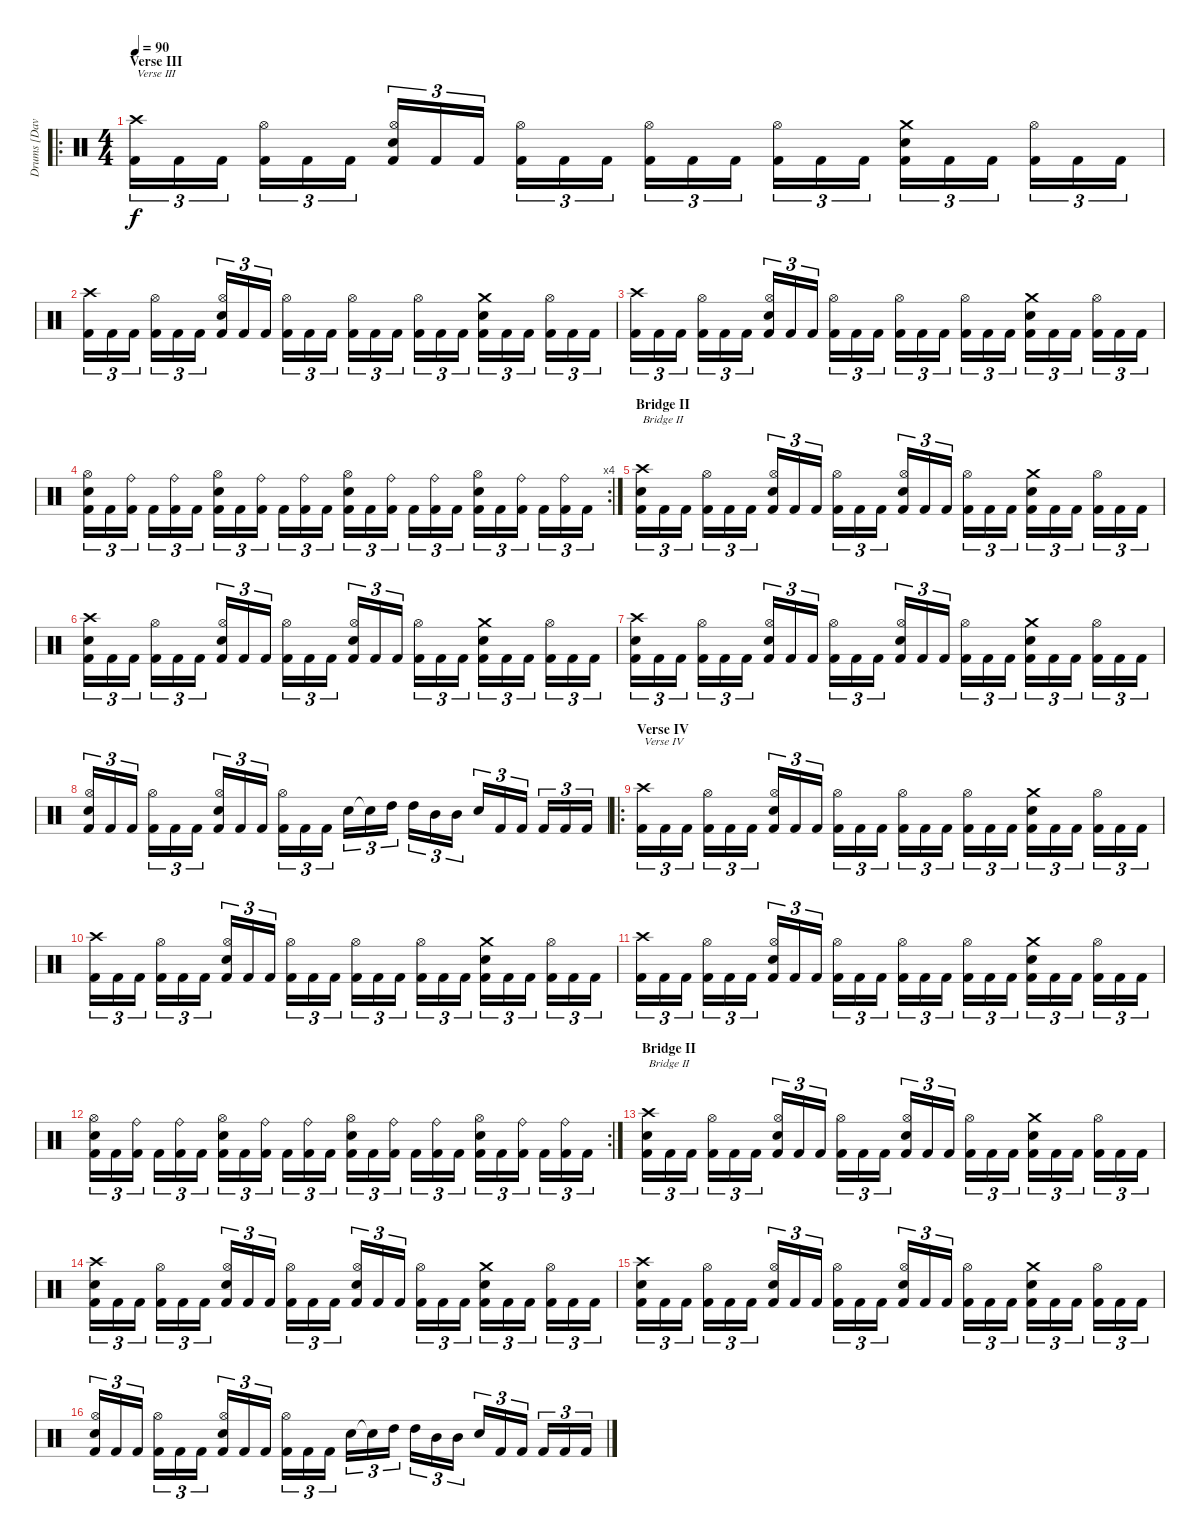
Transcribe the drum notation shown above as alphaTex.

\track ("Drums [Dave Culross]" "Drums [Dav") {instrument percussion}
\staff {score}
\articulation defaults
\ro
\ts (4 4)
\section ("" "Verse III")
\tempo 90
\clef neutral
\ks c
("Crash high (hit)" "Kick (hit) 2").16{tu (3 2) txt "Verse III" dy f} "Kick (hit) 2".16{tu (3 2)} "Kick (hit) 2".16{tu (3 2)} ("Hi-Hat (open)" "Kick (hit) 2").16{tu (3 2)} "Kick (hit) 2".16{tu (3 2)} "Kick (hit) 2".16{tu (3 2)} ("Hi-Hat (open)" "Electric Snare (hit)" "Kick (hit) 2").16{tu (3 2)} "Kick (hit) 2".16{tu (3 2)} "Kick (hit) 2".16{tu (3 2)} ("Hi-Hat (open)" "Kick (hit) 2").16{tu (3 2)} "Kick (hit) 2".16{tu (3 2)} "Kick (hit) 2".16{tu (3 2)} ("Hi-Hat (open)" "Kick (hit) 2").16{tu (3 2)} "Kick (hit) 2".16{tu (3 2)} "Kick (hit) 2".16{tu (3 2)} ("Hi-Hat (open)" "Kick (hit) 2").16{tu (3 2)} "Kick (hit) 2".16{tu (3 2)} "Kick (hit) 2".16{tu (3 2)} ("Crash medium (hit)" "Electric Snare (hit)" "Kick (hit) 2").16{tu (3 2)} "Kick (hit) 2".16{tu (3 2)} "Kick (hit) 2".16{tu (3 2)} ("Hi-Hat (open)" "Kick (hit) 2").16{tu (3 2)} "Kick (hit) 2".16{tu (3 2)} "Kick (hit) 2".16{tu (3 2)} |
("Crash high (hit)" "Kick (hit) 2").16{tu (3 2)} "Kick (hit) 2".16{tu (3 2)} "Kick (hit) 2".16{tu (3 2)} ("Hi-Hat (open)" "Kick (hit) 2").16{tu (3 2)} "Kick (hit) 2".16{tu (3 2)} "Kick (hit) 2".16{tu (3 2)} ("Hi-Hat (open)" "Electric Snare (hit)" "Kick (hit) 2").16{tu (3 2)} "Kick (hit) 2".16{tu (3 2)} "Kick (hit) 2".16{tu (3 2)} ("Hi-Hat (open)" "Kick (hit) 2").16{tu (3 2)} "Kick (hit) 2".16{tu (3 2)} "Kick (hit) 2".16{tu (3 2)} ("Hi-Hat (open)" "Kick (hit) 2").16{tu (3 2)} "Kick (hit) 2".16{tu (3 2)} "Kick (hit) 2".16{tu (3 2)} ("Hi-Hat (open)" "Kick (hit) 2").16{tu (3 2)} "Kick (hit) 2".16{tu (3 2)} "Kick (hit) 2".16{tu (3 2)} ("Crash medium (hit)" "Electric Snare (hit)" "Kick (hit) 2").16{tu (3 2)} "Kick (hit) 2".16{tu (3 2)} "Kick (hit) 2".16{tu (3 2)} ("Hi-Hat (open)" "Kick (hit) 2").16{tu (3 2)} "Kick (hit) 2".16{tu (3 2)} "Kick (hit) 2".16{tu (3 2)} |
("Crash high (hit)" "Kick (hit) 2").16{tu (3 2)} "Kick (hit) 2".16{tu (3 2)} "Kick (hit) 2".16{tu (3 2)} ("Hi-Hat (open)" "Kick (hit) 2").16{tu (3 2)} "Kick (hit) 2".16{tu (3 2)} "Kick (hit) 2".16{tu (3 2)} ("Hi-Hat (open)" "Electric Snare (hit)" "Kick (hit) 2").16{tu (3 2)} "Kick (hit) 2".16{tu (3 2)} "Kick (hit) 2".16{tu (3 2)} ("Hi-Hat (open)" "Kick (hit) 2").16{tu (3 2)} "Kick (hit) 2".16{tu (3 2)} "Kick (hit) 2".16{tu (3 2)} ("Hi-Hat (open)" "Kick (hit) 2").16{tu (3 2)} "Kick (hit) 2".16{tu (3 2)} "Kick (hit) 2".16{tu (3 2)} ("Hi-Hat (open)" "Kick (hit) 2").16{tu (3 2)} "Kick (hit) 2".16{tu (3 2)} "Kick (hit) 2".16{tu (3 2)} ("Crash medium (hit)" "Electric Snare (hit)" "Kick (hit) 2").16{tu (3 2)} "Kick (hit) 2".16{tu (3 2)} "Kick (hit) 2".16{tu (3 2)} ("Hi-Hat (open)" "Kick (hit) 2").16{tu (3 2)} "Kick (hit) 2".16{tu (3 2)} "Kick (hit) 2".16{tu (3 2)} |
\rc 4
("Hi-Hat (open)" "Electric Snare (hit)" "Kick (hit) 2").16{tu (3 2)} "Kick (hit) 2".16{tu (3 2)} ("Ride (bell)" "Kick (hit) 2").16{tu (3 2)} "Kick (hit) 2".16{tu (3 2)} ("Ride (bell)" "Kick (hit) 2").16{tu (3 2)} "Kick (hit) 2".16{tu (3 2)} ("Hi-Hat (open)" "Electric Snare (hit)" "Kick (hit) 2").16{tu (3 2)} "Kick (hit) 2".16{tu (3 2)} ("Ride (bell)" "Kick (hit) 2").16{tu (3 2)} "Kick (hit) 2".16{tu (3 2)} ("Ride (bell)" "Kick (hit) 2").16{tu (3 2)} "Kick (hit) 2".16{tu (3 2)} ("Hi-Hat (open)" "Electric Snare (hit)" "Kick (hit) 2").16{tu (3 2)} "Kick (hit) 2".16{tu (3 2)} ("Ride (bell)" "Kick (hit) 2").16{tu (3 2)} "Kick (hit) 2".16{tu (3 2)} ("Ride (bell)" "Kick (hit) 2").16{tu (3 2)} "Kick (hit) 2".16{tu (3 2)} ("Hi-Hat (open)" "Electric Snare (hit)" "Kick (hit) 2").16{tu (3 2)} "Kick (hit) 2".16{tu (3 2)} ("Ride (bell)" "Kick (hit) 2").16{tu (3 2)} "Kick (hit) 2".16{tu (3 2)} ("Ride (bell)" "Kick (hit) 2").16{tu (3 2)} "Kick (hit) 2".16{tu (3 2)} |
\section ("" "Bridge II")
("Crash high (hit)" "Electric Snare (hit)" "Kick (hit) 2").16{tu (3 2) txt "Bridge II"} "Kick (hit) 2".16{tu (3 2)} "Kick (hit) 2".16{tu (3 2)} ("Hi-Hat (open)" "Kick (hit) 2").16{tu (3 2)} "Kick (hit) 2".16{tu (3 2)} "Kick (hit) 2".16{tu (3 2)} ("Hi-Hat (open)" "Electric Snare (hit)" "Kick (hit) 2").16{tu (3 2)} "Kick (hit) 2".16{tu (3 2)} "Kick (hit) 2".16{tu (3 2)} ("Hi-Hat (open)" "Kick (hit) 2").16{tu (3 2)} "Kick (hit) 2".16{tu (3 2)} "Kick (hit) 2".16{tu (3 2)} ("Hi-Hat (open)" "Electric Snare (hit)" "Kick (hit) 2").16{tu (3 2)} "Kick (hit) 2".16{tu (3 2)} "Kick (hit) 2".16{tu (3 2)} ("Hi-Hat (open)" "Kick (hit) 2").16{tu (3 2)} "Kick (hit) 2".16{tu (3 2)} "Kick (hit) 2".16{tu (3 2)} ("Crash medium (hit)" "Electric Snare (hit)" "Kick (hit) 2").16{tu (3 2)} "Kick (hit) 2".16{tu (3 2)} "Kick (hit) 2".16{tu (3 2)} ("Hi-Hat (open)" "Kick (hit) 2").16{tu (3 2)} "Kick (hit) 2".16{tu (3 2)} "Kick (hit) 2".16{tu (3 2)} |
("Crash high (hit)" "Electric Snare (hit)" "Kick (hit) 2").16{tu (3 2)} "Kick (hit) 2".16{tu (3 2)} "Kick (hit) 2".16{tu (3 2)} ("Hi-Hat (open)" "Kick (hit) 2").16{tu (3 2)} "Kick (hit) 2".16{tu (3 2)} "Kick (hit) 2".16{tu (3 2)} ("Hi-Hat (open)" "Electric Snare (hit)" "Kick (hit) 2").16{tu (3 2)} "Kick (hit) 2".16{tu (3 2)} "Kick (hit) 2".16{tu (3 2)} ("Hi-Hat (open)" "Kick (hit) 2").16{tu (3 2)} "Kick (hit) 2".16{tu (3 2)} "Kick (hit) 2".16{tu (3 2)} ("Hi-Hat (open)" "Electric Snare (hit)" "Kick (hit) 2").16{tu (3 2)} "Kick (hit) 2".16{tu (3 2)} "Kick (hit) 2".16{tu (3 2)} ("Hi-Hat (open)" "Kick (hit) 2").16{tu (3 2)} "Kick (hit) 2".16{tu (3 2)} "Kick (hit) 2".16{tu (3 2)} ("Crash medium (hit)" "Electric Snare (hit)" "Kick (hit) 2").16{tu (3 2)} "Kick (hit) 2".16{tu (3 2)} "Kick (hit) 2".16{tu (3 2)} ("Hi-Hat (open)" "Kick (hit) 2").16{tu (3 2)} "Kick (hit) 2".16{tu (3 2)} "Kick (hit) 2".16{tu (3 2)} |
("Crash high (hit)" "Electric Snare (hit)" "Kick (hit) 2").16{tu (3 2)} "Kick (hit) 2".16{tu (3 2)} "Kick (hit) 2".16{tu (3 2)} ("Hi-Hat (open)" "Kick (hit) 2").16{tu (3 2)} "Kick (hit) 2".16{tu (3 2)} "Kick (hit) 2".16{tu (3 2)} ("Hi-Hat (open)" "Electric Snare (hit)" "Kick (hit) 2").16{tu (3 2)} "Kick (hit) 2".16{tu (3 2)} "Kick (hit) 2".16{tu (3 2)} ("Hi-Hat (open)" "Kick (hit) 2").16{tu (3 2)} "Kick (hit) 2".16{tu (3 2)} "Kick (hit) 2".16{tu (3 2)} ("Hi-Hat (open)" "Electric Snare (hit)" "Kick (hit) 2").16{tu (3 2)} "Kick (hit) 2".16{tu (3 2)} "Kick (hit) 2".16{tu (3 2)} ("Hi-Hat (open)" "Kick (hit) 2").16{tu (3 2)} "Kick (hit) 2".16{tu (3 2)} "Kick (hit) 2".16{tu (3 2)} ("Crash medium (hit)" "Electric Snare (hit)" "Kick (hit) 2").16{tu (3 2)} "Kick (hit) 2".16{tu (3 2)} "Kick (hit) 2".16{tu (3 2)} ("Hi-Hat (open)" "Kick (hit) 2").16{tu (3 2)} "Kick (hit) 2".16{tu (3 2)} "Kick (hit) 2".16{tu (3 2)} |
("Hi-Hat (open)" "Electric Snare (hit)" "Kick (hit) 2").16{tu (3 2)} "Kick (hit) 2".16{tu (3 2)} "Kick (hit) 2".16{tu (3 2)} ("Hi-Hat (open)" "Kick (hit) 2").16{tu (3 2)} "Kick (hit) 2".16{tu (3 2)} "Kick (hit) 2".16{tu (3 2)} ("Hi-Hat (open)" "Electric Snare (hit)" "Kick (hit) 2").16{tu (3 2)} "Kick (hit) 2".16{tu (3 2)} "Kick (hit) 2".16{tu (3 2)} ("Hi-Hat (open)" "Kick (hit) 2").16{tu (3 2)} "Kick (hit) 2".16{tu (3 2)} "Kick (hit) 2".16{tu (3 2)} "Electric Snare (hit)".16{tu (3 2)} "Snare (hit)"{t}.16{tu (3 2)} "High Tom (hit)".16{tu (3 2)} "High Tom (hit)".16{tu (3 2)} "Mid Tom (hit)".16{tu (3 2)} "Mid Tom (hit)".16{tu (3 2)} "Electric Snare (hit)".16{tu (3 2)} "Kick (hit) 2".16{tu (3 2)} "Kick (hit) 2".16{tu (3 2)} "Kick (hit) 2".16{tu (3 2)} "Kick (hit) 2".16{tu (3 2)} "Kick (hit) 2".16{tu (3 2)} |
\ro
\section ("" "Verse IV")
("Crash high (hit)" "Kick (hit) 2").16{tu (3 2) txt "Verse IV"} "Kick (hit) 2".16{tu (3 2)} "Kick (hit) 2".16{tu (3 2)} ("Hi-Hat (open)" "Kick (hit) 2").16{tu (3 2)} "Kick (hit) 2".16{tu (3 2)} "Kick (hit) 2".16{tu (3 2)} ("Hi-Hat (open)" "Electric Snare (hit)" "Kick (hit) 2").16{tu (3 2)} "Kick (hit) 2".16{tu (3 2)} "Kick (hit) 2".16{tu (3 2)} ("Hi-Hat (open)" "Kick (hit) 2").16{tu (3 2)} "Kick (hit) 2".16{tu (3 2)} "Kick (hit) 2".16{tu (3 2)} ("Hi-Hat (open)" "Kick (hit) 2").16{tu (3 2)} "Kick (hit) 2".16{tu (3 2)} "Kick (hit) 2".16{tu (3 2)} ("Hi-Hat (open)" "Kick (hit) 2").16{tu (3 2)} "Kick (hit) 2".16{tu (3 2)} "Kick (hit) 2".16{tu (3 2)} ("Crash medium (hit)" "Electric Snare (hit)" "Kick (hit) 2").16{tu (3 2)} "Kick (hit) 2".16{tu (3 2)} "Kick (hit) 2".16{tu (3 2)} ("Hi-Hat (open)" "Kick (hit) 2").16{tu (3 2)} "Kick (hit) 2".16{tu (3 2)} "Kick (hit) 2".16{tu (3 2)} |
("Crash high (hit)" "Kick (hit) 2").16{tu (3 2)} "Kick (hit) 2".16{tu (3 2)} "Kick (hit) 2".16{tu (3 2)} ("Hi-Hat (open)" "Kick (hit) 2").16{tu (3 2)} "Kick (hit) 2".16{tu (3 2)} "Kick (hit) 2".16{tu (3 2)} ("Hi-Hat (open)" "Electric Snare (hit)" "Kick (hit) 2").16{tu (3 2)} "Kick (hit) 2".16{tu (3 2)} "Kick (hit) 2".16{tu (3 2)} ("Hi-Hat (open)" "Kick (hit) 2").16{tu (3 2)} "Kick (hit) 2".16{tu (3 2)} "Kick (hit) 2".16{tu (3 2)} ("Hi-Hat (open)" "Kick (hit) 2").16{tu (3 2)} "Kick (hit) 2".16{tu (3 2)} "Kick (hit) 2".16{tu (3 2)} ("Hi-Hat (open)" "Kick (hit) 2").16{tu (3 2)} "Kick (hit) 2".16{tu (3 2)} "Kick (hit) 2".16{tu (3 2)} ("Crash medium (hit)" "Electric Snare (hit)" "Kick (hit) 2").16{tu (3 2)} "Kick (hit) 2".16{tu (3 2)} "Kick (hit) 2".16{tu (3 2)} ("Hi-Hat (open)" "Kick (hit) 2").16{tu (3 2)} "Kick (hit) 2".16{tu (3 2)} "Kick (hit) 2".16{tu (3 2)} |
("Crash high (hit)" "Kick (hit) 2").16{tu (3 2)} "Kick (hit) 2".16{tu (3 2)} "Kick (hit) 2".16{tu (3 2)} ("Hi-Hat (open)" "Kick (hit) 2").16{tu (3 2)} "Kick (hit) 2".16{tu (3 2)} "Kick (hit) 2".16{tu (3 2)} ("Hi-Hat (open)" "Electric Snare (hit)" "Kick (hit) 2").16{tu (3 2)} "Kick (hit) 2".16{tu (3 2)} "Kick (hit) 2".16{tu (3 2)} ("Hi-Hat (open)" "Kick (hit) 2").16{tu (3 2)} "Kick (hit) 2".16{tu (3 2)} "Kick (hit) 2".16{tu (3 2)} ("Hi-Hat (open)" "Kick (hit) 2").16{tu (3 2)} "Kick (hit) 2".16{tu (3 2)} "Kick (hit) 2".16{tu (3 2)} ("Hi-Hat (open)" "Kick (hit) 2").16{tu (3 2)} "Kick (hit) 2".16{tu (3 2)} "Kick (hit) 2".16{tu (3 2)} ("Crash medium (hit)" "Electric Snare (hit)" "Kick (hit) 2").16{tu (3 2)} "Kick (hit) 2".16{tu (3 2)} "Kick (hit) 2".16{tu (3 2)} ("Hi-Hat (open)" "Kick (hit) 2").16{tu (3 2)} "Kick (hit) 2".16{tu (3 2)} "Kick (hit) 2".16{tu (3 2)} |
\rc 2
("Hi-Hat (open)" "Electric Snare (hit)" "Kick (hit) 2").16{tu (3 2)} "Kick (hit) 2".16{tu (3 2)} ("Ride (bell)" "Kick (hit) 2").16{tu (3 2)} "Kick (hit) 2".16{tu (3 2)} ("Ride (bell)" "Kick (hit) 2").16{tu (3 2)} "Kick (hit) 2".16{tu (3 2)} ("Hi-Hat (open)" "Electric Snare (hit)" "Kick (hit) 2").16{tu (3 2)} "Kick (hit) 2".16{tu (3 2)} ("Ride (bell)" "Kick (hit) 2").16{tu (3 2)} "Kick (hit) 2".16{tu (3 2)} ("Ride (bell)" "Kick (hit) 2").16{tu (3 2)} "Kick (hit) 2".16{tu (3 2)} ("Hi-Hat (open)" "Electric Snare (hit)" "Kick (hit) 2").16{tu (3 2)} "Kick (hit) 2".16{tu (3 2)} ("Ride (bell)" "Kick (hit) 2").16{tu (3 2)} "Kick (hit) 2".16{tu (3 2)} ("Ride (bell)" "Kick (hit) 2").16{tu (3 2)} "Kick (hit) 2".16{tu (3 2)} ("Hi-Hat (open)" "Electric Snare (hit)" "Kick (hit) 2").16{tu (3 2)} "Kick (hit) 2".16{tu (3 2)} ("Ride (bell)" "Kick (hit) 2").16{tu (3 2)} "Kick (hit) 2".16{tu (3 2)} ("Ride (bell)" "Kick (hit) 2").16{tu (3 2)} "Kick (hit) 2".16{tu (3 2)} |
\section ("" "Bridge II")
("Crash high (hit)" "Electric Snare (hit)" "Kick (hit) 2").16{tu (3 2) txt "Bridge II"} "Kick (hit) 2".16{tu (3 2)} "Kick (hit) 2".16{tu (3 2)} ("Hi-Hat (open)" "Kick (hit) 2").16{tu (3 2)} "Kick (hit) 2".16{tu (3 2)} "Kick (hit) 2".16{tu (3 2)} ("Hi-Hat (open)" "Electric Snare (hit)" "Kick (hit) 2").16{tu (3 2)} "Kick (hit) 2".16{tu (3 2)} "Kick (hit) 2".16{tu (3 2)} ("Hi-Hat (open)" "Kick (hit) 2").16{tu (3 2)} "Kick (hit) 2".16{tu (3 2)} "Kick (hit) 2".16{tu (3 2)} ("Hi-Hat (open)" "Electric Snare (hit)" "Kick (hit) 2").16{tu (3 2)} "Kick (hit) 2".16{tu (3 2)} "Kick (hit) 2".16{tu (3 2)} ("Hi-Hat (open)" "Kick (hit) 2").16{tu (3 2)} "Kick (hit) 2".16{tu (3 2)} "Kick (hit) 2".16{tu (3 2)} ("Crash medium (hit)" "Electric Snare (hit)" "Kick (hit) 2").16{tu (3 2)} "Kick (hit) 2".16{tu (3 2)} "Kick (hit) 2".16{tu (3 2)} ("Hi-Hat (open)" "Kick (hit) 2").16{tu (3 2)} "Kick (hit) 2".16{tu (3 2)} "Kick (hit) 2".16{tu (3 2)} |
("Crash high (hit)" "Electric Snare (hit)" "Kick (hit) 2").16{tu (3 2)} "Kick (hit) 2".16{tu (3 2)} "Kick (hit) 2".16{tu (3 2)} ("Hi-Hat (open)" "Kick (hit) 2").16{tu (3 2)} "Kick (hit) 2".16{tu (3 2)} "Kick (hit) 2".16{tu (3 2)} ("Hi-Hat (open)" "Electric Snare (hit)" "Kick (hit) 2").16{tu (3 2)} "Kick (hit) 2".16{tu (3 2)} "Kick (hit) 2".16{tu (3 2)} ("Hi-Hat (open)" "Kick (hit) 2").16{tu (3 2)} "Kick (hit) 2".16{tu (3 2)} "Kick (hit) 2".16{tu (3 2)} ("Hi-Hat (open)" "Electric Snare (hit)" "Kick (hit) 2").16{tu (3 2)} "Kick (hit) 2".16{tu (3 2)} "Kick (hit) 2".16{tu (3 2)} ("Hi-Hat (open)" "Kick (hit) 2").16{tu (3 2)} "Kick (hit) 2".16{tu (3 2)} "Kick (hit) 2".16{tu (3 2)} ("Crash medium (hit)" "Electric Snare (hit)" "Kick (hit) 2").16{tu (3 2)} "Kick (hit) 2".16{tu (3 2)} "Kick (hit) 2".16{tu (3 2)} ("Hi-Hat (open)" "Kick (hit) 2").16{tu (3 2)} "Kick (hit) 2".16{tu (3 2)} "Kick (hit) 2".16{tu (3 2)} |
("Crash high (hit)" "Electric Snare (hit)" "Kick (hit) 2").16{tu (3 2)} "Kick (hit) 2".16{tu (3 2)} "Kick (hit) 2".16{tu (3 2)} ("Hi-Hat (open)" "Kick (hit) 2").16{tu (3 2)} "Kick (hit) 2".16{tu (3 2)} "Kick (hit) 2".16{tu (3 2)} ("Hi-Hat (open)" "Electric Snare (hit)" "Kick (hit) 2").16{tu (3 2)} "Kick (hit) 2".16{tu (3 2)} "Kick (hit) 2".16{tu (3 2)} ("Hi-Hat (open)" "Kick (hit) 2").16{tu (3 2)} "Kick (hit) 2".16{tu (3 2)} "Kick (hit) 2".16{tu (3 2)} ("Hi-Hat (open)" "Electric Snare (hit)" "Kick (hit) 2").16{tu (3 2)} "Kick (hit) 2".16{tu (3 2)} "Kick (hit) 2".16{tu (3 2)} ("Hi-Hat (open)" "Kick (hit) 2").16{tu (3 2)} "Kick (hit) 2".16{tu (3 2)} "Kick (hit) 2".16{tu (3 2)} ("Crash medium (hit)" "Electric Snare (hit)" "Kick (hit) 2").16{tu (3 2)} "Kick (hit) 2".16{tu (3 2)} "Kick (hit) 2".16{tu (3 2)} ("Hi-Hat (open)" "Kick (hit) 2").16{tu (3 2)} "Kick (hit) 2".16{tu (3 2)} "Kick (hit) 2".16{tu (3 2)} |
("Hi-Hat (open)" "Electric Snare (hit)" "Kick (hit) 2").16{tu (3 2)} "Kick (hit) 2".16{tu (3 2)} "Kick (hit) 2".16{tu (3 2)} ("Hi-Hat (open)" "Kick (hit) 2").16{tu (3 2)} "Kick (hit) 2".16{tu (3 2)} "Kick (hit) 2".16{tu (3 2)} ("Hi-Hat (open)" "Electric Snare (hit)" "Kick (hit) 2").16{tu (3 2)} "Kick (hit) 2".16{tu (3 2)} "Kick (hit) 2".16{tu (3 2)} ("Hi-Hat (open)" "Kick (hit) 2").16{tu (3 2)} "Kick (hit) 2".16{tu (3 2)} "Kick (hit) 2".16{tu (3 2)} "Electric Snare (hit)".16{tu (3 2)} "Snare (hit)"{t}.16{tu (3 2)} "High Tom (hit)".16{tu (3 2)} "High Tom (hit)".16{tu (3 2)} "Mid Tom (hit)".16{tu (3 2)} "Mid Tom (hit)".16{tu (3 2)} "Electric Snare (hit)".16{tu (3 2)} "Kick (hit) 2".16{tu (3 2)} "Kick (hit) 2".16{tu (3 2)} "Kick (hit) 2".16{tu (3 2)} "Kick (hit) 2".16{tu (3 2)} "Kick (hit) 2".16{tu (3 2)}
